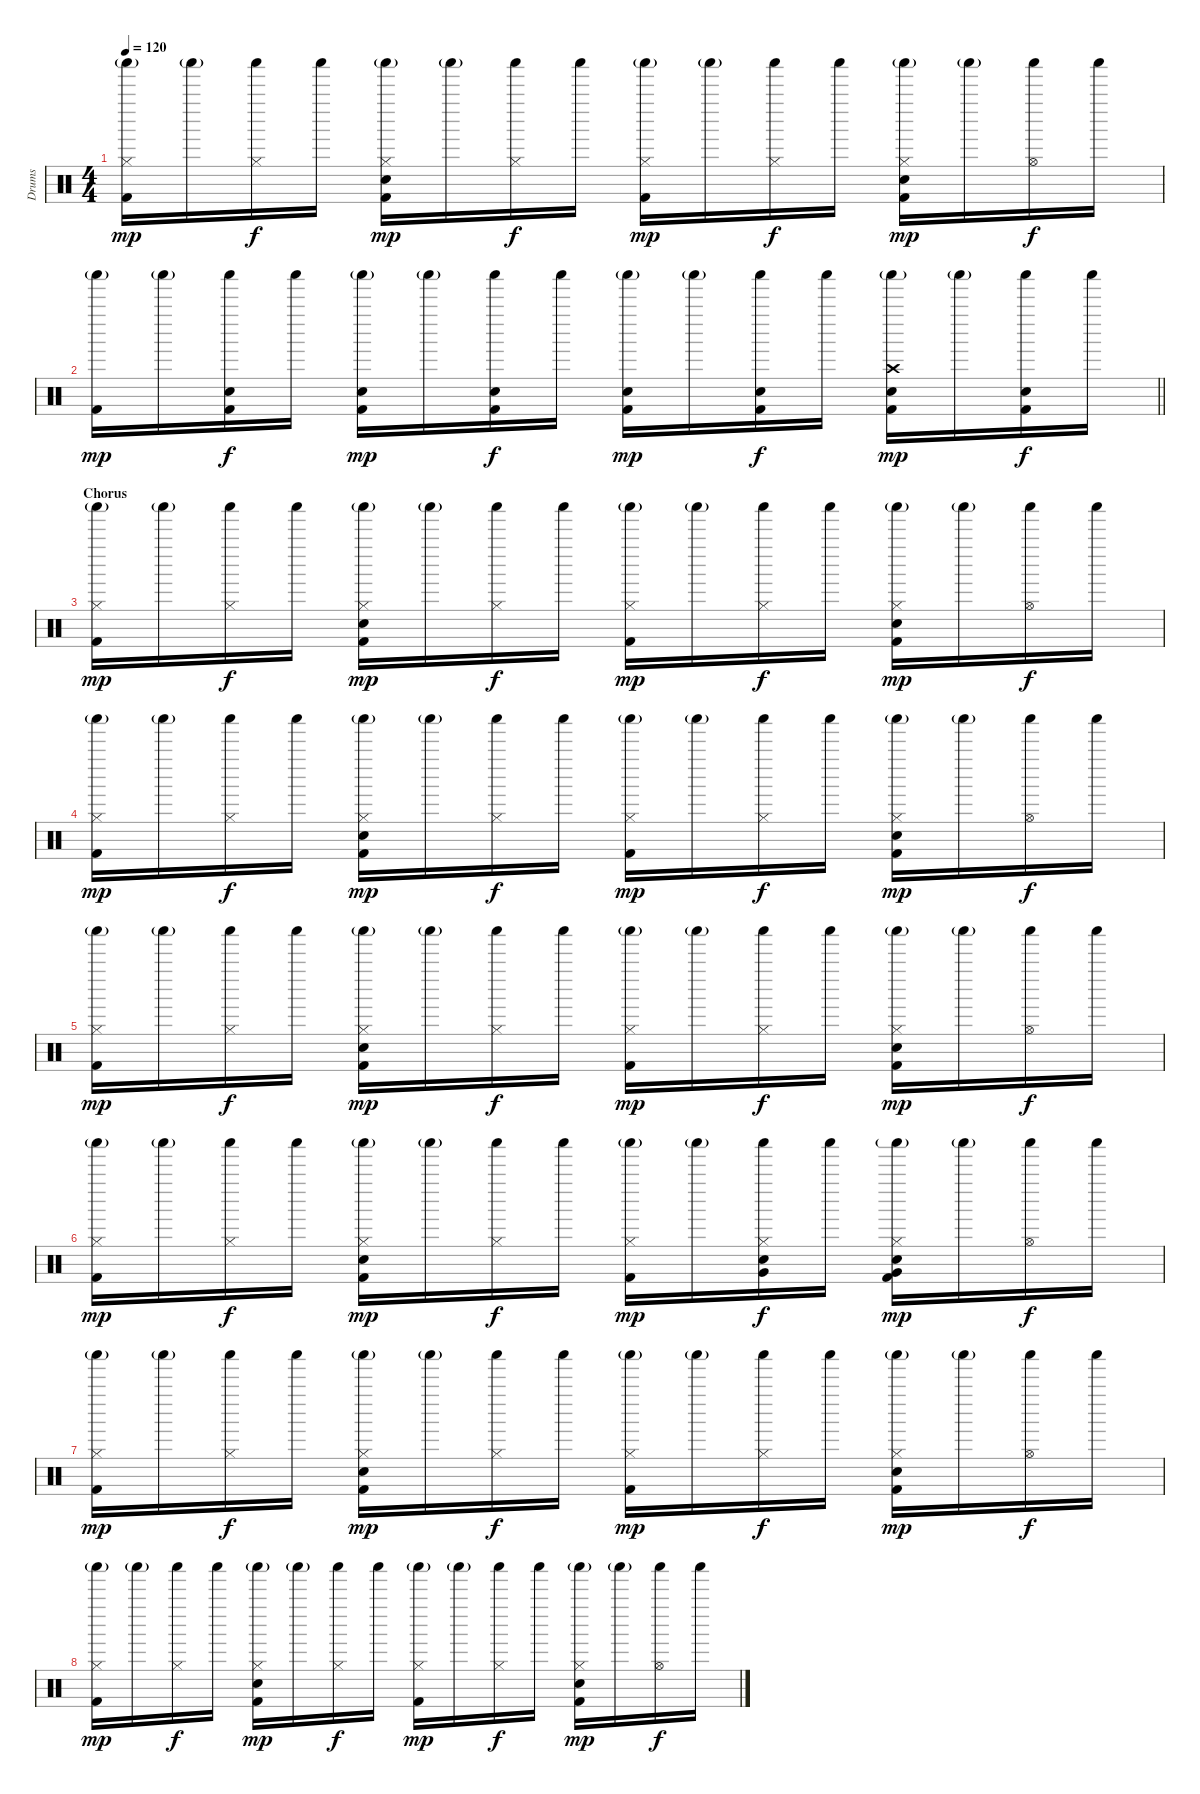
\track ("Drums" "Drums") {instrument percussion}
\staff {score}
\articulation defaults
\ts (4 4)
\tempo 120
\clef neutral
\ks c
("Hi-Hat (closed)" "Shaker (hit)"{g} "Kick (hit) 2").16{dy mp} "Shaker (hit)"{g}.16 ("Hi-Hat (closed)" "Shaker (hit)").16{dy f} "Shaker (hit)".16 ("Hi-Hat (closed)" "Shaker (hit)"{g} "Electric Snare (hit)" "Kick (hit) 2").16{dy mp} "Shaker (hit)"{g}.16 ("Hi-Hat (closed)" "Shaker (hit)").16{dy f} "Shaker (hit)".16 ("Hi-Hat (closed)" "Shaker (hit)"{g} "Kick (hit) 2").16{dy mp} "Shaker (hit)"{g}.16 ("Hi-Hat (closed)" "Shaker (hit)").16{dy f} "Shaker (hit)".16 ("Hi-Hat (closed)" "Shaker (hit)"{g} "Electric Snare (hit)" "Kick (hit) 2").16{dy mp} "Shaker (hit)"{g}.16 ("Hi-Hat (open)" "Shaker (hit)").16{dy f} "Shaker (hit)".16 |
\barLineRight lightlight
("Shaker (hit)"{g} "Kick (hit) 2").16{dy mp} "Shaker (hit)"{g}.16 ("Shaker (hit)" "Electric Snare (hit)" "Kick (hit) 2").16{dy f} "Shaker (hit)".16 ("Shaker (hit)"{g} "Electric Snare (hit)" "Kick (hit) 2").16{dy mp} "Shaker (hit)"{g}.16 ("Shaker (hit)" "Electric Snare (hit)" "Kick (hit) 2").16{dy f} "Shaker (hit)".16 ("Shaker (hit)"{g} "Electric Snare (hit)" "Kick (hit) 2").16{dy mp} "Shaker (hit)"{g}.16 ("Shaker (hit)" "Electric Snare (hit)" "Kick (hit) 2").16{dy f} "Shaker (hit)".16 ("Crash high (hit)" "Shaker (hit)"{g} "Electric Snare (hit)" "Kick (hit) 2").16{dy mp} "Shaker (hit)"{g}.16 ("Shaker (hit)" "Electric Snare (hit)" "Kick (hit) 2").16{dy f} "Shaker (hit)".16 |
\section ("" "Chorus")
("Hi-Hat (closed)" "Shaker (hit)"{g} "Kick (hit) 2").16{dy mp} "Shaker (hit)"{g}.16 ("Hi-Hat (closed)" "Shaker (hit)").16{dy f} "Shaker (hit)".16 ("Hi-Hat (closed)" "Shaker (hit)"{g} "Electric Snare (hit)" "Kick (hit) 2").16{dy mp} "Shaker (hit)"{g}.16 ("Hi-Hat (closed)" "Shaker (hit)").16{dy f} "Shaker (hit)".16 ("Hi-Hat (closed)" "Shaker (hit)"{g} "Kick (hit) 2").16{dy mp} "Shaker (hit)"{g}.16 ("Hi-Hat (closed)" "Shaker (hit)").16{dy f} "Shaker (hit)".16 ("Hi-Hat (closed)" "Shaker (hit)"{g} "Electric Snare (hit)" "Kick (hit) 2").16{dy mp} "Shaker (hit)"{g}.16 ("Hi-Hat (open)" "Shaker (hit)").16{dy f} "Shaker (hit)".16 |
("Hi-Hat (closed)" "Shaker (hit)"{g} "Kick (hit) 2").16{dy mp} "Shaker (hit)"{g}.16 ("Hi-Hat (closed)" "Shaker (hit)").16{dy f} "Shaker (hit)".16 ("Hi-Hat (closed)" "Shaker (hit)"{g} "Electric Snare (hit)" "Kick (hit) 2").16{dy mp} "Shaker (hit)"{g}.16 ("Hi-Hat (closed)" "Shaker (hit)").16{dy f} "Shaker (hit)".16 ("Hi-Hat (closed)" "Shaker (hit)"{g} "Kick (hit) 2").16{dy mp} "Shaker (hit)"{g}.16 ("Hi-Hat (closed)" "Shaker (hit)").16{dy f} "Shaker (hit)".16 ("Hi-Hat (closed)" "Shaker (hit)"{g} "Electric Snare (hit)" "Kick (hit) 2").16{dy mp} "Shaker (hit)"{g}.16 ("Hi-Hat (open)" "Shaker (hit)").16{dy f} "Shaker (hit)".16 |
("Hi-Hat (closed)" "Shaker (hit)"{g} "Kick (hit) 2").16{dy mp} "Shaker (hit)"{g}.16 ("Hi-Hat (closed)" "Shaker (hit)").16{dy f} "Shaker (hit)".16 ("Hi-Hat (closed)" "Shaker (hit)"{g} "Electric Snare (hit)" "Kick (hit) 2").16{dy mp} "Shaker (hit)"{g}.16 ("Hi-Hat (closed)" "Shaker (hit)").16{dy f} "Shaker (hit)".16 ("Hi-Hat (closed)" "Shaker (hit)"{g} "Kick (hit) 2").16{dy mp} "Shaker (hit)"{g}.16 ("Hi-Hat (closed)" "Shaker (hit)").16{dy f} "Shaker (hit)".16 ("Hi-Hat (closed)" "Shaker (hit)"{g} "Electric Snare (hit)" "Kick (hit) 2").16{dy mp} "Shaker (hit)"{g}.16 ("Hi-Hat (open)" "Shaker (hit)").16{dy f} "Shaker (hit)".16 |
("Hi-Hat (closed)" "Shaker (hit)"{g} "Kick (hit) 2").16{dy mp} "Shaker (hit)"{g}.16 ("Hi-Hat (closed)" "Shaker (hit)").16{dy f} "Shaker (hit)".16 ("Hi-Hat (closed)" "Shaker (hit)"{g} "Electric Snare (hit)" "Kick (hit) 2").16{dy mp} "Shaker (hit)"{g}.16 ("Hi-Hat (closed)" "Shaker (hit)").16{dy f} "Shaker (hit)".16 ("Hi-Hat (closed)" "Shaker (hit)"{g} "Kick (hit) 2").16{dy mp} "Shaker (hit)"{g}.16 ("Hi-Hat (closed)" "Shaker (hit)" "Very Low Tom (hit)" "Electric Snare (hit)").16{dy f} "Shaker (hit)".16 ("Hi-Hat (closed)" "Shaker (hit)"{g} "Very Low Tom (hit)" "Electric Snare (hit)" "Kick (hit) 2").16{dy mp} "Shaker (hit)"{g}.16 ("Hi-Hat (open)" "Shaker (hit)").16{dy f} "Shaker (hit)".16 |
("Hi-Hat (closed)" "Shaker (hit)"{g} "Kick (hit) 2").16{dy mp} "Shaker (hit)"{g}.16 ("Hi-Hat (closed)" "Shaker (hit)").16{dy f} "Shaker (hit)".16 ("Hi-Hat (closed)" "Shaker (hit)"{g} "Electric Snare (hit)" "Kick (hit) 2").16{dy mp} "Shaker (hit)"{g}.16 ("Hi-Hat (closed)" "Shaker (hit)").16{dy f} "Shaker (hit)".16 ("Hi-Hat (closed)" "Shaker (hit)"{g} "Kick (hit) 2").16{dy mp} "Shaker (hit)"{g}.16 ("Hi-Hat (closed)" "Shaker (hit)").16{dy f} "Shaker (hit)".16 ("Hi-Hat (closed)" "Shaker (hit)"{g} "Electric Snare (hit)" "Kick (hit) 2").16{dy mp} "Shaker (hit)"{g}.16 ("Hi-Hat (open)" "Shaker (hit)").16{dy f} "Shaker (hit)".16 |
("Hi-Hat (closed)" "Shaker (hit)"{g} "Kick (hit) 2").16{dy mp} "Shaker (hit)"{g}.16 ("Hi-Hat (closed)" "Shaker (hit)").16{dy f} "Shaker (hit)".16 ("Hi-Hat (closed)" "Shaker (hit)"{g} "Electric Snare (hit)" "Kick (hit) 2").16{dy mp} "Shaker (hit)"{g}.16 ("Hi-Hat (closed)" "Shaker (hit)").16{dy f} "Shaker (hit)".16 ("Hi-Hat (closed)" "Shaker (hit)"{g} "Kick (hit) 2").16{dy mp} "Shaker (hit)"{g}.16 ("Hi-Hat (closed)" "Shaker (hit)").16{dy f} "Shaker (hit)".16 ("Hi-Hat (closed)" "Shaker (hit)"{g} "Electric Snare (hit)" "Kick (hit) 2").16{dy mp} "Shaker (hit)"{g}.16 ("Hi-Hat (open)" "Shaker (hit)").16{dy f} "Shaker (hit)".16
